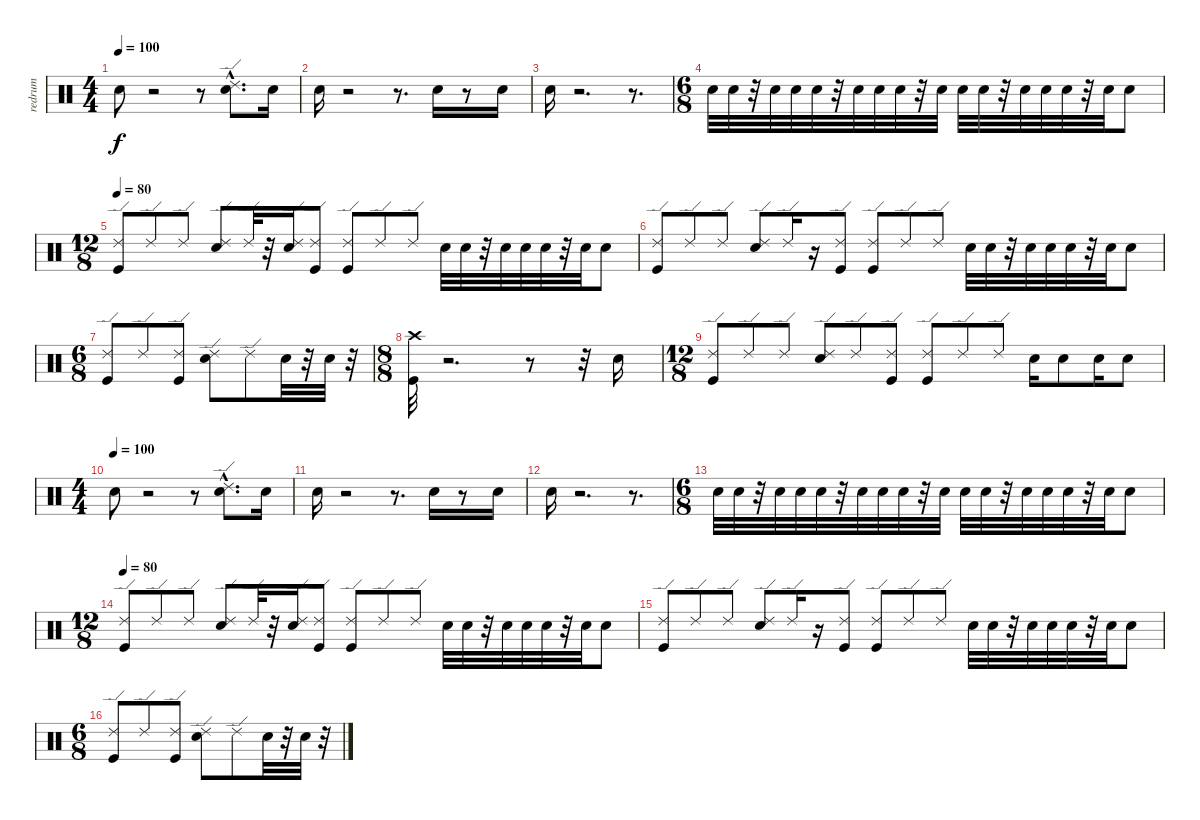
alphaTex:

\track ("redrum" "redrum") {instrument percussion}
\staff {score}
\articulation defaults
\ts (4 4)
\tempo 100
\clef neutral
\ks c "Electric Snare (hit)".8{dy f}
r.2 r.8 ("Electric Snare (hit)"{hac} "Ride (edge) 2").8{d} "Electric Snare (hit)".16 |
"Electric Snare (hit)".16 r.2 r.8{d} "Electric Snare (hit)".16 r.8 "Electric Snare (hit)".16 |
"Electric Snare (hit)".16 r.2{d} r.8{d} |
\ts (6 8)
"Electric Snare (hit)".32 "Electric Snare (hit)".32 r.32 "Electric Snare (hit)".32 "Electric Snare (hit)".32 "Electric Snare (hit)".32 r.32 "Electric Snare (hit)".32 "Electric Snare (hit)".32 "Electric Snare (hit)".32 r.32 "Electric Snare (hit)".32 "Electric Snare (hit)".32 "Electric Snare (hit)".32 r.32 "Electric Snare (hit)".32 "Electric Snare (hit)".32 "Electric Snare (hit)".32 r.32 "Electric Snare (hit)".32 "Electric Snare (hit)".8 |
\ts (12 8)
\tempo 80
("Kick (hit)" "Ride (edge) 2").8 "Ride (edge) 2".8 "Ride (edge) 2".8 ("Electric Snare (hit)" "Ride (edge) 2").8 "Ride (edge) 2".32 r.32 ("Ride (edge) 2" "Electric Snare (hit)").16 ("Kick (hit)" "Ride (edge) 2").8 ("Kick (hit)" "Ride (edge) 2").8 "Ride (edge) 2".8 "Ride (edge) 2".8 "Electric Snare (hit)".32 "Electric Snare (hit)".32 r.32 "Electric Snare (hit)".32 "Electric Snare (hit)".32 "Electric Snare (hit)".32 r.32 "Electric Snare (hit)".32 "Electric Snare (hit)".8 |
("Ride (edge) 2" "Kick (hit)").8 "Ride (edge) 2".8 "Ride (edge) 2".8 ("Electric Snare (hit)" "Ride (edge) 2").8 "Ride (edge) 2".16 r.16 ("Kick (hit)" "Ride (edge) 2").8 ("Kick (hit)" "Ride (edge) 2").8 "Ride (edge) 2".8 "Ride (edge) 2".8 "Electric Snare (hit)".32 "Electric Snare (hit)".32 r.32 "Electric Snare (hit)".32 "Electric Snare (hit)".32 "Electric Snare (hit)".32 r.32 "Electric Snare (hit)".32 "Electric Snare (hit)".8 |
\ts (6 8)
("Ride (edge) 2" "Kick (hit)").8 "Ride (edge) 2".8 ("Kick (hit)" "Ride (edge) 2").8 ("Electric Snare (hit)" "Ride (edge) 2").8 "Ride (edge) 2".8 "Electric Snare (hit)".32 r.32 "Electric Snare (hit)".32 r.32 |
\ts (8 8)
("Kick (hit)" "Crash high (hit)").32 r.2{d} r.8 r.32 "Electric Snare (hit)".16 |
\ts (12 8)
("Ride (edge) 2" "Kick (hit)").8 "Ride (edge) 2".8 "Ride (edge) 2".8 ("Electric Snare (hit)" "Ride (edge) 2").8 "Ride (edge) 2".8 ("Ride (edge) 2" "Kick (hit)").8 ("Kick (hit)" "Ride (edge) 2").8 "Ride (edge) 2".8 "Ride (edge) 2".8 "Electric Snare (hit)".16 "Electric Snare (hit)".8 "Electric Snare (hit)".16 "Electric Snare (hit)".8 |
\ts (4 4)
\tempo (100)
"Electric Snare (hit)".8 r.2 r.8 ("Electric Snare (hit)"{hac} "Ride (edge) 2").8{d} "Electric Snare (hit)".16 |
"Electric Snare (hit)".16 r.2 r.8{d} "Electric Snare (hit)".16 r.8 "Electric Snare (hit)".16 |
"Electric Snare (hit)".16 r.2{d} r.8{d} |
\ts (6 8)
"Electric Snare (hit)".32 "Electric Snare (hit)".32 r.32 "Electric Snare (hit)".32 "Electric Snare (hit)".32 "Electric Snare (hit)".32 r.32 "Electric Snare (hit)".32 "Electric Snare (hit)".32 "Electric Snare (hit)".32 r.32 "Electric Snare (hit)".32 "Electric Snare (hit)".32 "Electric Snare (hit)".32 r.32 "Electric Snare (hit)".32 "Electric Snare (hit)".32 "Electric Snare (hit)".32 r.32 "Electric Snare (hit)".32 "Electric Snare (hit)".8 |
\ts (12 8)
\tempo 80
("Kick (hit)" "Ride (edge) 2").8 "Ride (edge) 2".8 "Ride (edge) 2".8 ("Electric Snare (hit)" "Ride (edge) 2").8 "Ride (edge) 2".32 r.32 ("Ride (edge) 2" "Electric Snare (hit)").16 ("Kick (hit)" "Ride (edge) 2").8 ("Kick (hit)" "Ride (edge) 2").8 "Ride (edge) 2".8 "Ride (edge) 2".8 "Electric Snare (hit)".32 "Electric Snare (hit)".32 r.32 "Electric Snare (hit)".32 "Electric Snare (hit)".32 "Electric Snare (hit)".32 r.32 "Electric Snare (hit)".32 "Electric Snare (hit)".8 |
("Ride (edge) 2" "Kick (hit)").8 "Ride (edge) 2".8 "Ride (edge) 2".8 ("Electric Snare (hit)" "Ride (edge) 2").8 "Ride (edge) 2".16 r.16 ("Kick (hit)" "Ride (edge) 2").8 ("Kick (hit)" "Ride (edge) 2").8 "Ride (edge) 2".8 "Ride (edge) 2".8 "Electric Snare (hit)".32 "Electric Snare (hit)".32 r.32 "Electric Snare (hit)".32 "Electric Snare (hit)".32 "Electric Snare (hit)".32 r.32 "Electric Snare (hit)".32 "Electric Snare (hit)".8 |
\ts (6 8)
("Ride (edge) 2" "Kick (hit)").8 "Ride (edge) 2".8 ("Kick (hit)" "Ride (edge) 2").8 ("Electric Snare (hit)" "Ride (edge) 2").8 "Ride (edge) 2".8 "Electric Snare (hit)".32 r.32 "Electric Snare (hit)".32 r.32
